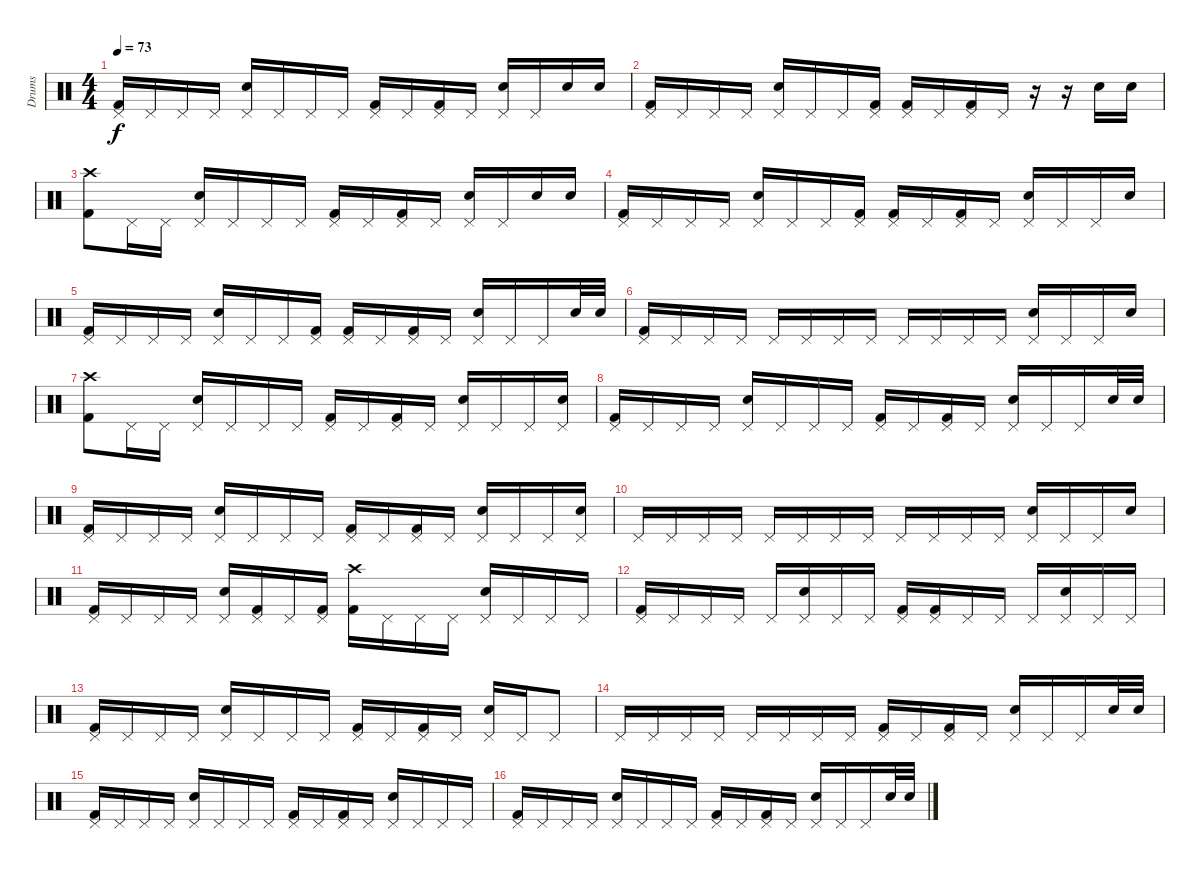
\track ("Drums" "Drums") {instrument percussion}
\staff {score}
\articulation defaults
\ts (4 4)
\tempo 73
\clef neutral
\ks c
("Pedal Hi-Hat (hit)" "Kick (hit) 2").16{dy f} "Pedal Hi-Hat (hit)".16 "Pedal Hi-Hat (hit)".16 "Pedal Hi-Hat (hit)".16 ("Pedal Hi-Hat (hit)" "Snare (hit) 2").16 "Pedal Hi-Hat (hit)".16 "Pedal Hi-Hat (hit)".16 "Pedal Hi-Hat (hit)".16 ("Pedal Hi-Hat (hit)" "Kick (hit) 2").16 "Pedal Hi-Hat (hit)".16 ("Pedal Hi-Hat (hit)" "Kick (hit) 2").16 "Pedal Hi-Hat (hit)".16 ("Pedal Hi-Hat (hit)" "Snare (hit) 2").16 "Pedal Hi-Hat (hit)".16 "Snare (hit) 2".16 "Snare (hit) 2".16 |
("Pedal Hi-Hat (hit)" "Kick (hit) 2").16 "Pedal Hi-Hat (hit)".16 "Pedal Hi-Hat (hit)".16 "Pedal Hi-Hat (hit)".16 ("Pedal Hi-Hat (hit)" "Snare (hit) 2").16 "Pedal Hi-Hat (hit)".16 "Pedal Hi-Hat (hit)".16 ("Pedal Hi-Hat (hit)" "Kick (hit) 2").16 ("Pedal Hi-Hat (hit)" "Kick (hit) 2").16 "Pedal Hi-Hat (hit)".16 ("Pedal Hi-Hat (hit)" "Kick (hit) 2").16 "Pedal Hi-Hat (hit)".16 r.16 r.16 "Snare (hit) 2".16 "Snare (hit) 2".16 |
("Crash high (hit)" "Kick (hit) 2").8 "Pedal Hi-Hat (hit)".16 "Pedal Hi-Hat (hit)".16 ("Pedal Hi-Hat (hit)" "Snare (hit) 2").16 "Pedal Hi-Hat (hit)".16 "Pedal Hi-Hat (hit)".16 "Pedal Hi-Hat (hit)".16 ("Pedal Hi-Hat (hit)" "Kick (hit) 2").16 "Pedal Hi-Hat (hit)".16 ("Pedal Hi-Hat (hit)" "Kick (hit) 2").16 "Pedal Hi-Hat (hit)".16 ("Pedal Hi-Hat (hit)" "Snare (hit) 2").16 "Pedal Hi-Hat (hit)".16 "Snare (hit) 2".16 "Snare (hit) 2".16 |
("Pedal Hi-Hat (hit)" "Kick (hit) 2").16 "Pedal Hi-Hat (hit)".16 "Pedal Hi-Hat (hit)".16 "Pedal Hi-Hat (hit)".16 ("Pedal Hi-Hat (hit)" "Snare (hit) 2").16 "Pedal Hi-Hat (hit)".16 "Pedal Hi-Hat (hit)".16 ("Pedal Hi-Hat (hit)" "Kick (hit) 2").16 ("Pedal Hi-Hat (hit)" "Kick (hit) 2").16 "Pedal Hi-Hat (hit)".16 ("Pedal Hi-Hat (hit)" "Kick (hit) 2").16 "Pedal Hi-Hat (hit)".16 ("Pedal Hi-Hat (hit)" "Snare (hit) 2").16 "Pedal Hi-Hat (hit)".16 "Pedal Hi-Hat (hit)".16 "Snare (hit) 2".16 |
("Pedal Hi-Hat (hit)" "Kick (hit) 2").16 "Pedal Hi-Hat (hit)".16 "Pedal Hi-Hat (hit)".16 "Pedal Hi-Hat (hit)".16 ("Pedal Hi-Hat (hit)" "Snare (hit) 2").16 "Pedal Hi-Hat (hit)".16 "Pedal Hi-Hat (hit)".16 ("Pedal Hi-Hat (hit)" "Kick (hit) 2").16 ("Pedal Hi-Hat (hit)" "Kick (hit) 2").16 "Pedal Hi-Hat (hit)".16 ("Pedal Hi-Hat (hit)" "Kick (hit) 2").16 "Pedal Hi-Hat (hit)".16 ("Pedal Hi-Hat (hit)" "Snare (hit) 2").16 "Pedal Hi-Hat (hit)".16 "Pedal Hi-Hat (hit)".16 "Snare (hit) 2".32 "Snare (hit) 2".32 |
("Pedal Hi-Hat (hit)" "Kick (hit) 2").16 "Pedal Hi-Hat (hit)".16 "Pedal Hi-Hat (hit)".16 "Pedal Hi-Hat (hit)".16 "Pedal Hi-Hat (hit)".16 "Pedal Hi-Hat (hit)".16 "Pedal Hi-Hat (hit)".16 "Pedal Hi-Hat (hit)".16 "Pedal Hi-Hat (hit)".16 "Pedal Hi-Hat (hit)".16 "Pedal Hi-Hat (hit)".16 "Pedal Hi-Hat (hit)".16 ("Pedal Hi-Hat (hit)" "Snare (hit) 2").16 "Pedal Hi-Hat (hit)".16 "Pedal Hi-Hat (hit)".16 "Snare (hit) 2".16 |
("Crash high (hit)" "Kick (hit) 2").8 "Pedal Hi-Hat (hit)".16 "Pedal Hi-Hat (hit)".16 ("Pedal Hi-Hat (hit)" "Snare (hit) 2").16 "Pedal Hi-Hat (hit)".16 "Pedal Hi-Hat (hit)".16 "Pedal Hi-Hat (hit)".16 ("Pedal Hi-Hat (hit)" "Kick (hit) 2").16 "Pedal Hi-Hat (hit)".16 ("Pedal Hi-Hat (hit)" "Kick (hit) 2").16 "Pedal Hi-Hat (hit)".16 ("Pedal Hi-Hat (hit)" "Snare (hit) 2").16 "Pedal Hi-Hat (hit)".16 "Pedal Hi-Hat (hit)".16 ("Pedal Hi-Hat (hit)" "Snare (hit) 2").16 |
("Pedal Hi-Hat (hit)" "Kick (hit) 2").16 "Pedal Hi-Hat (hit)".16 "Pedal Hi-Hat (hit)".16 "Pedal Hi-Hat (hit)".16 ("Pedal Hi-Hat (hit)" "Snare (hit) 2").16 "Pedal Hi-Hat (hit)".16 "Pedal Hi-Hat (hit)".16 "Pedal Hi-Hat (hit)".16 ("Pedal Hi-Hat (hit)" "Kick (hit) 2").16 "Pedal Hi-Hat (hit)".16 ("Pedal Hi-Hat (hit)" "Kick (hit) 2").16 "Pedal Hi-Hat (hit)".16 ("Pedal Hi-Hat (hit)" "Snare (hit) 2").16 "Pedal Hi-Hat (hit)".16 "Pedal Hi-Hat (hit)".16 "Snare (hit) 2".32 "Snare (hit) 2".32 |
("Pedal Hi-Hat (hit)" "Kick (hit) 2").16 "Pedal Hi-Hat (hit)".16 "Pedal Hi-Hat (hit)".16 "Pedal Hi-Hat (hit)".16 ("Pedal Hi-Hat (hit)" "Snare (hit) 2").16 "Pedal Hi-Hat (hit)".16 "Pedal Hi-Hat (hit)".16 "Pedal Hi-Hat (hit)".16 ("Pedal Hi-Hat (hit)" "Kick (hit) 2").16 "Pedal Hi-Hat (hit)".16 ("Pedal Hi-Hat (hit)" "Kick (hit) 2").16 "Pedal Hi-Hat (hit)".16 ("Pedal Hi-Hat (hit)" "Snare (hit) 2").16 "Pedal Hi-Hat (hit)".16 "Pedal Hi-Hat (hit)".16 ("Pedal Hi-Hat (hit)" "Snare (hit) 2").16 |
"Pedal Hi-Hat (hit)".16 "Pedal Hi-Hat (hit)".16 "Pedal Hi-Hat (hit)".16 "Pedal Hi-Hat (hit)".16 "Pedal Hi-Hat (hit)".16 "Pedal Hi-Hat (hit)".16 "Pedal Hi-Hat (hit)".16 "Pedal Hi-Hat (hit)".16 "Pedal Hi-Hat (hit)".16 "Pedal Hi-Hat (hit)".16 "Pedal Hi-Hat (hit)".16 "Pedal Hi-Hat (hit)".16 ("Pedal Hi-Hat (hit)" "Snare (hit) 2").16 "Pedal Hi-Hat (hit)".16 "Pedal Hi-Hat (hit)".16 "Snare (hit) 2".16 |
("Pedal Hi-Hat (hit)" "Kick (hit) 2").16 "Pedal Hi-Hat (hit)".16 "Pedal Hi-Hat (hit)".16 "Pedal Hi-Hat (hit)".16 ("Pedal Hi-Hat (hit)" "Snare (hit) 2").16 ("Pedal Hi-Hat (hit)" "Kick (hit) 2").16 "Pedal Hi-Hat (hit)".16 ("Pedal Hi-Hat (hit)" "Kick (hit) 2").16 ("Crash high (hit)" "Kick (hit) 2").16 "Pedal Hi-Hat (hit)".16 "Pedal Hi-Hat (hit)".16 "Pedal Hi-Hat (hit)".16 ("Pedal Hi-Hat (hit)" "Snare (hit) 2").16 "Pedal Hi-Hat (hit)".16 "Pedal Hi-Hat (hit)".16 "Pedal Hi-Hat (hit)".16 |
("Pedal Hi-Hat (hit)" "Kick (hit) 2").16 "Pedal Hi-Hat (hit)".16 "Pedal Hi-Hat (hit)".16 "Pedal Hi-Hat (hit)".16 "Pedal Hi-Hat (hit)".16 ("Pedal Hi-Hat (hit)" "Snare (hit) 2").16 "Pedal Hi-Hat (hit)".16 "Pedal Hi-Hat (hit)".16 ("Pedal Hi-Hat (hit)" "Kick (hit) 2").16 ("Pedal Hi-Hat (hit)" "Kick (hit) 2").16 "Pedal Hi-Hat (hit)".16 "Pedal Hi-Hat (hit)".16 "Pedal Hi-Hat (hit)".16 ("Pedal Hi-Hat (hit)" "Snare (hit) 2").16 "Pedal Hi-Hat (hit)".16 "Pedal Hi-Hat (hit)".16 |
("Pedal Hi-Hat (hit)" "Kick (hit) 2").16 "Pedal Hi-Hat (hit)".16 "Pedal Hi-Hat (hit)".16 "Pedal Hi-Hat (hit)".16 ("Pedal Hi-Hat (hit)" "Snare (hit) 2").16 "Pedal Hi-Hat (hit)".16 "Pedal Hi-Hat (hit)".16 "Pedal Hi-Hat (hit)".16 ("Pedal Hi-Hat (hit)" "Kick (hit) 2").16 "Pedal Hi-Hat (hit)".16 ("Pedal Hi-Hat (hit)" "Kick (hit) 2").16 "Pedal Hi-Hat (hit)".16 ("Pedal Hi-Hat (hit)" "Snare (hit) 2").16 "Pedal Hi-Hat (hit)".16 "Pedal Hi-Hat (hit)".8 |
"Pedal Hi-Hat (hit)".16 "Pedal Hi-Hat (hit)".16 "Pedal Hi-Hat (hit)".16 "Pedal Hi-Hat (hit)".16 "Pedal Hi-Hat (hit)".16 "Pedal Hi-Hat (hit)".16 "Pedal Hi-Hat (hit)".16 "Pedal Hi-Hat (hit)".16 ("Pedal Hi-Hat (hit)" "Kick (hit) 2").16 "Pedal Hi-Hat (hit)".16 ("Pedal Hi-Hat (hit)" "Kick (hit) 2").16 "Pedal Hi-Hat (hit)".16 ("Pedal Hi-Hat (hit)" "Snare (hit) 2").16 "Pedal Hi-Hat (hit)".16 "Pedal Hi-Hat (hit)".16 "Snare (hit) 2".32 "Snare (hit) 2".32 |
("Pedal Hi-Hat (hit)" "Kick (hit) 2").16 "Pedal Hi-Hat (hit)".16 "Pedal Hi-Hat (hit)".16 "Pedal Hi-Hat (hit)".16 ("Pedal Hi-Hat (hit)" "Snare (hit) 2").16 "Pedal Hi-Hat (hit)".16 "Pedal Hi-Hat (hit)".16 "Pedal Hi-Hat (hit)".16 ("Pedal Hi-Hat (hit)" "Kick (hit) 2").16 "Pedal Hi-Hat (hit)".16 ("Pedal Hi-Hat (hit)" "Kick (hit) 2").16 "Pedal Hi-Hat (hit)".16 ("Pedal Hi-Hat (hit)" "Snare (hit) 2").16 "Pedal Hi-Hat (hit)".16 "Pedal Hi-Hat (hit)".16 "Pedal Hi-Hat (hit)".16 |
("Pedal Hi-Hat (hit)" "Kick (hit) 2").16 "Pedal Hi-Hat (hit)".16 "Pedal Hi-Hat (hit)".16 "Pedal Hi-Hat (hit)".16 ("Pedal Hi-Hat (hit)" "Snare (hit) 2").16 "Pedal Hi-Hat (hit)".16 "Pedal Hi-Hat (hit)".16 "Pedal Hi-Hat (hit)".16 ("Pedal Hi-Hat (hit)" "Kick (hit) 2").16 "Pedal Hi-Hat (hit)".16 ("Pedal Hi-Hat (hit)" "Kick (hit) 2").16 "Pedal Hi-Hat (hit)".16 ("Pedal Hi-Hat (hit)" "Snare (hit) 2").16 "Pedal Hi-Hat (hit)".16 "Pedal Hi-Hat (hit)".16 "Snare (hit) 2".32 "Snare (hit) 2".32
